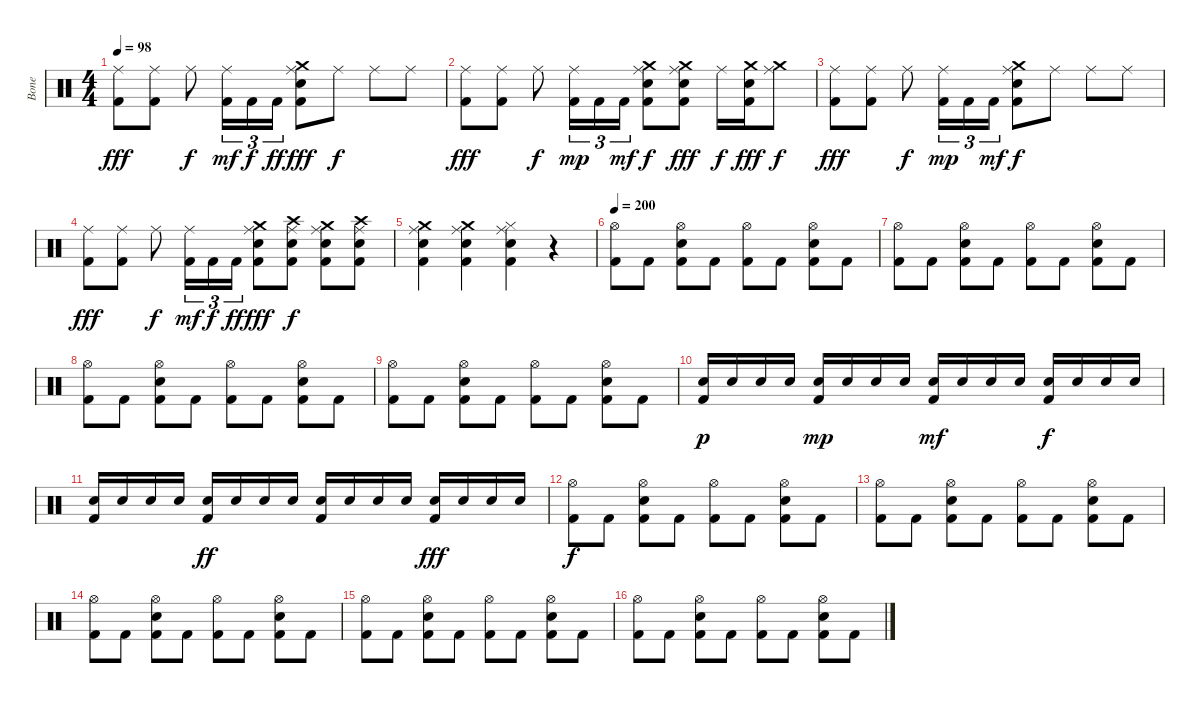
\track ("Bone " "Bone ") {instrument percussion}
\staff {score}
\articulation defaults
\ts (4 4)
\tempo 98
\clef neutral
\ks c
("Ride (middle)" "Kick (hit) 2").8{dy fff} ("Ride (middle)" "Kick (hit) 2").8 "Ride (middle)".8{dy f} ("Ride (middle)" "Kick (hit) 2").16{tu (3 2) dy mf} "Kick (hit) 2".16{tu (3 2) dy f} "Kick (hit) 2".16{tu (3 2) dy ff} ("Ride (middle)" "Crash medium (hit)" "Electric Snare (hit)" "Kick (hit) 2").8{dy fff} "Ride (middle)".8{dy f} "Ride (middle)".8 "Ride (middle)".8 |
("Ride (middle)" "Kick (hit) 2").8{dy fff} ("Ride (middle)" "Kick (hit) 2").8 "Ride (middle)".8{dy f} ("Ride (middle)" "Kick (hit) 2").16{tu (3 2) dy mp} "Kick (hit) 2".16{tu (3 2)} "Kick (hit) 2".16{tu (3 2) dy mf} ("Ride (middle)" "Crash medium (hit)" "Electric Snare (hit)" "Kick (hit) 2").8{dy f} ("Ride (middle)" "Crash medium (hit)" "Snare (hit) 2" "Kick (hit) 2").8{dy fff} "Ride (middle)".16{dy f} ("Crash medium (hit)" "Snare (hit) 2" "Kick (hit) 2").16{dy fff} ("Ride (middle)" "Crash medium (hit)").8{dy f} |
("Ride (middle)" "Kick (hit) 2").8{dy fff} ("Ride (middle)" "Kick (hit) 2").8 "Ride (middle)".8{dy f} ("Ride (middle)" "Kick (hit) 2").16{tu (3 2) dy mp} "Kick (hit) 2".16{tu (3 2)} "Kick (hit) 2".16{tu (3 2) dy mf} ("Ride (middle)" "Crash medium (hit)" "Electric Snare (hit)" "Kick (hit) 2").8{dy f} "Ride (middle)".8 "Ride (middle)".8 "Ride (middle)".8 |
("Ride (middle)" "Kick (hit) 2").8{dy fff} ("Ride (middle)" "Kick (hit) 2").8 "Ride (middle)".8{dy f} ("Ride (middle)" "Kick (hit) 2").16{tu (3 2) dy mf} "Kick (hit) 2".16{tu (3 2) dy f} "Kick (hit) 2".16{tu (3 2) dy ff} ("Ride (middle)" "Crash medium (hit)" "Electric Snare (hit)" "Kick (hit) 2").8{dy fff} ("Ride (middle)" "Crash high (hit)" "Electric Snare (hit)" "Kick (hit) 2").8{dy f} ("Ride (middle)" "Crash medium (hit)" "Electric Snare (hit)" "Kick (hit) 2").8 ("Ride (middle)" "Crash high (hit)" "Electric Snare (hit)" "Kick (hit) 2").8 |
("Ride (middle)" "Crash medium (hit)" "Electric Snare (hit)" "Kick (hit) 2").4 ("Ride (middle)" "Crash medium (hit)" "Electric Snare (hit)" "Kick (hit) 2").4 ("Ride (middle)" "Hi-Hat (closed)" "Electric Snare (hit)" "Kick (hit) 2").4 r.4 |
\tempo 200
("Hi-Hat (open)" "Kick (hit) 2").8 "Kick (hit) 2".8 ("Hi-Hat (open)" "Electric Snare (hit)" "Kick (hit) 2").8 "Kick (hit) 2".8 ("Hi-Hat (open)" "Kick (hit) 2").8 "Kick (hit) 2".8 ("Hi-Hat (open)" "Electric Snare (hit)" "Kick (hit) 2").8 "Kick (hit) 2".8 |
("Hi-Hat (open)" "Kick (hit) 2").8 "Kick (hit) 2".8 ("Hi-Hat (open)" "Electric Snare (hit)" "Kick (hit) 2").8 "Kick (hit) 2".8 ("Hi-Hat (open)" "Kick (hit) 2").8 "Kick (hit) 2".8 ("Hi-Hat (open)" "Electric Snare (hit)" "Kick (hit) 2").8 "Kick (hit) 2".8 |
("Hi-Hat (open)" "Kick (hit) 2").8 "Kick (hit) 2".8 ("Hi-Hat (open)" "Electric Snare (hit)" "Kick (hit) 2").8 "Kick (hit) 2".8 ("Hi-Hat (open)" "Kick (hit) 2").8 "Kick (hit) 2".8 ("Hi-Hat (open)" "Electric Snare (hit)" "Kick (hit) 2").8 "Kick (hit) 2".8 |
("Hi-Hat (open)" "Kick (hit) 2").8 "Kick (hit) 2".8 ("Hi-Hat (open)" "Electric Snare (hit)" "Kick (hit) 2").8 "Kick (hit) 2".8 ("Hi-Hat (open)" "Kick (hit) 2").8 "Kick (hit) 2".8 ("Hi-Hat (open)" "Electric Snare (hit)" "Kick (hit) 2").8 "Kick (hit) 2".8 |
("Electric Snare (hit)" "Kick (hit) 2").16{dy p} "Electric Snare (hit)".16 "Electric Snare (hit)".16 "Electric Snare (hit)".16 ("Electric Snare (hit)" "Kick (hit) 2").16{dy mp} "Electric Snare (hit)".16 "Electric Snare (hit)".16 "Electric Snare (hit)".16 ("Electric Snare (hit)" "Kick (hit) 2").16{dy mf} "Electric Snare (hit)".16 "Electric Snare (hit)".16 "Electric Snare (hit)".16 ("Electric Snare (hit)" "Kick (hit) 2").16{dy f} "Electric Snare (hit)".16 "Electric Snare (hit)".16 "Electric Snare (hit)".16 |
("Electric Snare (hit)" "Kick (hit) 2").16 "Electric Snare (hit)".16 "Electric Snare (hit)".16 "Electric Snare (hit)".16 ("Electric Snare (hit)" "Kick (hit) 2").16{dy ff} "Electric Snare (hit)".16 "Electric Snare (hit)".16 "Electric Snare (hit)".16 ("Electric Snare (hit)" "Kick (hit) 2").16 "Electric Snare (hit)".16 "Electric Snare (hit)".16 "Electric Snare (hit)".16 ("Electric Snare (hit)" "Kick (hit) 2").16{dy fff} "Electric Snare (hit)".16 "Electric Snare (hit)".16 "Electric Snare (hit)".16 |
("Hi-Hat (open)" "Kick (hit) 2").8{dy f} "Kick (hit) 2".8 ("Hi-Hat (open)" "Electric Snare (hit)" "Kick (hit) 2").8 "Kick (hit) 2".8 ("Hi-Hat (open)" "Kick (hit) 2").8 "Kick (hit) 2".8 ("Hi-Hat (open)" "Electric Snare (hit)" "Kick (hit) 2").8 "Kick (hit) 2".8 |
("Hi-Hat (open)" "Kick (hit) 2").8 "Kick (hit) 2".8 ("Hi-Hat (open)" "Electric Snare (hit)" "Kick (hit) 2").8 "Kick (hit) 2".8 ("Hi-Hat (open)" "Kick (hit) 2").8 "Kick (hit) 2".8 ("Hi-Hat (open)" "Electric Snare (hit)" "Kick (hit) 2").8 "Kick (hit) 2".8 |
("Hi-Hat (open)" "Kick (hit) 2").8 "Kick (hit) 2".8 ("Hi-Hat (open)" "Electric Snare (hit)" "Kick (hit) 2").8 "Kick (hit) 2".8 ("Hi-Hat (open)" "Kick (hit) 2").8 "Kick (hit) 2".8 ("Hi-Hat (open)" "Electric Snare (hit)" "Kick (hit) 2").8 "Kick (hit) 2".8 |
("Hi-Hat (open)" "Kick (hit) 2").8 "Kick (hit) 2".8 ("Hi-Hat (open)" "Electric Snare (hit)" "Kick (hit) 2").8 "Kick (hit) 2".8 ("Hi-Hat (open)" "Kick (hit) 2").8 "Kick (hit) 2".8 ("Hi-Hat (open)" "Electric Snare (hit)" "Kick (hit) 2").8 "Kick (hit) 2".8 |
("Hi-Hat (open)" "Kick (hit) 2").8 "Kick (hit) 2".8 ("Hi-Hat (open)" "Electric Snare (hit)" "Kick (hit) 2").8 "Kick (hit) 2".8 ("Hi-Hat (open)" "Kick (hit) 2").8 "Kick (hit) 2".8 ("Hi-Hat (open)" "Electric Snare (hit)" "Kick (hit) 2").8 "Kick (hit) 2".8
